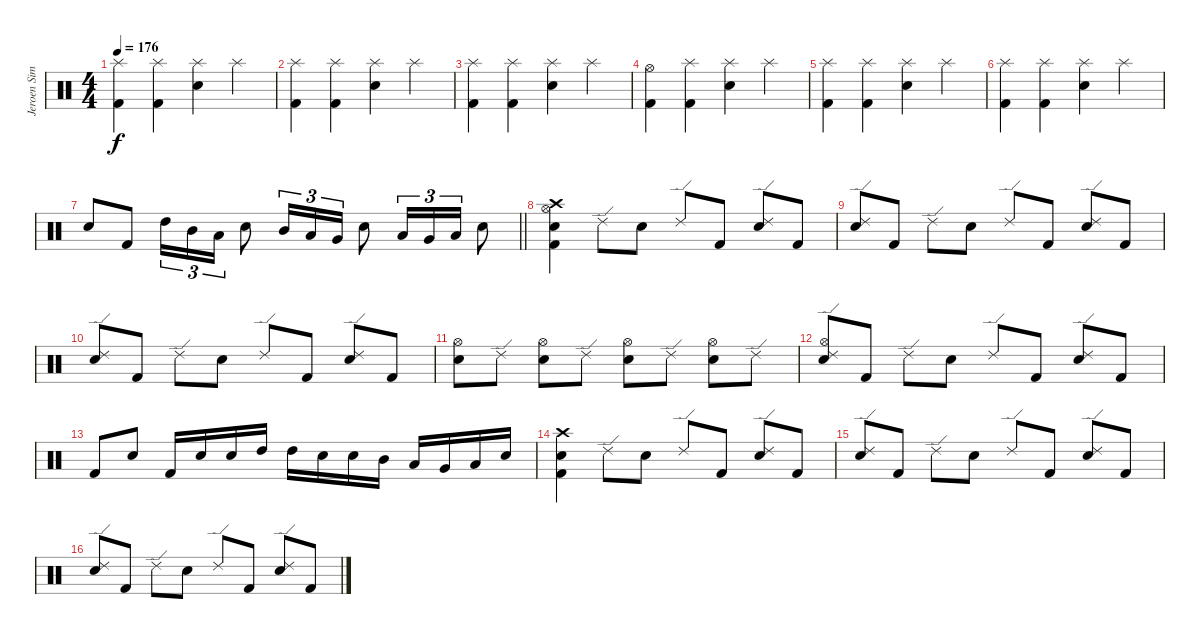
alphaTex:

\track ("Jeroen Simons" "Jeroen Sim") {instrument percussion}
\staff {score}
\articulation defaults
\ts (4 4)
\tempo 176
\clef neutral
\ks c
("Splash (hit)" "Kick (hit) 2").4{dy f} ("Splash (hit)" "Kick (hit) 2").4 ("Splash (hit)" "Electric Snare (hit)").4 "Splash (hit)".4 |
("Splash (hit)" "Kick (hit) 2").4 ("Splash (hit)" "Kick (hit) 2").4 ("Splash (hit)" "Electric Snare (hit)").4 "Splash (hit)".4 |
("Splash (hit)" "Kick (hit) 2").4 ("Splash (hit)" "Kick (hit) 2").4 ("Splash (hit)" "Electric Snare (hit)").4 "Splash (hit)".4 |
("Hi-Hat (open)" "Kick (hit) 2").4 ("Splash (hit)" "Kick (hit) 2").4 ("Splash (hit)" "Electric Snare (hit)").4 "Splash (hit)".4 |
("Splash (hit)" "Kick (hit) 2").4 ("Splash (hit)" "Kick (hit) 2").4 ("Splash (hit)" "Electric Snare (hit)").4 "Splash (hit)".4 |
("Splash (hit)" "Kick (hit) 2").4 ("Splash (hit)" "Kick (hit) 2").4 ("Splash (hit)" "Electric Snare (hit)").4 "Splash (hit)".4 |
\barLineRight lightlight "Snare (hit) 2".8 "Kick (hit) 2".8 "High Tom (hit)".16{tu (3 2)} "Mid Tom (hit)".16{tu (3 2)} "Low Tom (hit)".16{tu (3 2)} "Electric Snare (hit)".8 "Mid Tom (hit)".16{tu (3 2)} "Low Tom (hit)".16{tu (3 2)} "Very Low Tom (hit)".16{tu (3 2)} "Electric Snare (hit)".8 "Low Tom (hit)".16{tu (3 2)} "Very Low Tom (hit)".16{tu (3 2)} "Low Floor Tom (hit)".16{tu (3 2)} "Electric Snare (hit)".8
|
\section ("" "")
("Crash high (hit)" "Hi-Hat (open)" "Kick (hit) 2" "Snare (hit) 2").4 "Ride (edge) 2".8 "Snare (hit) 2".8 "Ride (edge) 2".8 "Kick (hit) 2".8 ("Ride (edge) 2" "Snare (hit) 2").8 "Kick (hit) 2".8 |
("Ride (edge) 2" "Snare (hit) 2").8 "Kick (hit) 2".8 "Ride (edge) 2".8 "Snare (hit) 2".8 "Ride (edge) 2".8 "Kick (hit) 2".8 ("Ride (edge) 2" "Snare (hit) 2").8 "Kick (hit) 2".8 |
("Ride (edge) 2" "Snare (hit) 2").8 "Kick (hit) 2".8 "Ride (edge) 2".8 "Snare (hit) 2".8 "Ride (edge) 2".8 "Kick (hit) 2".8 ("Ride (edge) 2" "Snare (hit) 2").8 "Kick (hit) 2".8 |
("Hi-Hat (open)" "Electric Snare (hit)").8 "Ride (edge) 2".8 ("Hi-Hat (open)" "Electric Snare (hit)").8 "Ride (edge) 2".8 ("Hi-Hat (open)" "Electric Snare (hit)").8 "Ride (edge) 2".8 ("Hi-Hat (open)" "Electric Snare (hit)").8 "Ride (edge) 2".8 |
("Hi-Hat (open)" "Ride (edge) 2" "Electric Snare (hit)").8 "Kick (hit) 2".8 "Ride (edge) 2".8 "Snare (hit) 2".8 "Ride (edge) 2".8 "Kick (hit) 2".8 ("Ride (edge) 2" "Snare (hit) 2").8 "Kick (hit) 2".8 |
"Kick (hit) 2".8 "Snare (hit) 2".8 "Kick (hit) 2".16 "Electric Snare (hit)".16 "Electric Snare (hit)".16 "High Tom (hit)".16 "High Tom (hit)".16 "Electric Snare (hit)".16 "Electric Snare (hit)".16 "Mid Tom (hit)".16 "Low Tom (hit)".16 "Very Low Tom (hit)".16 "Low Floor Tom (hit)".16 "Electric Snare (hit)".16 |
("Crash high (hit)" "Kick (hit) 2" "Snare (hit) 2").4 "Ride (edge) 2".8 "Snare (hit) 2".8 "Ride (edge) 2".8 "Kick (hit) 2".8 ("Ride (edge) 2" "Snare (hit) 2").8 "Kick (hit) 2".8 |
("Ride (edge) 2" "Snare (hit) 2").8 "Kick (hit) 2".8 "Ride (edge) 2".8 "Snare (hit) 2".8 "Ride (edge) 2".8 "Kick (hit) 2".8 ("Ride (edge) 2" "Snare (hit) 2").8 "Kick (hit) 2".8 |
("Ride (edge) 2" "Snare (hit) 2").8 "Kick (hit) 2".8 "Ride (edge) 2".8 "Snare (hit) 2".8 "Ride (edge) 2".8 "Kick (hit) 2".8 ("Ride (edge) 2" "Snare (hit) 2").8 "Kick (hit) 2".8
